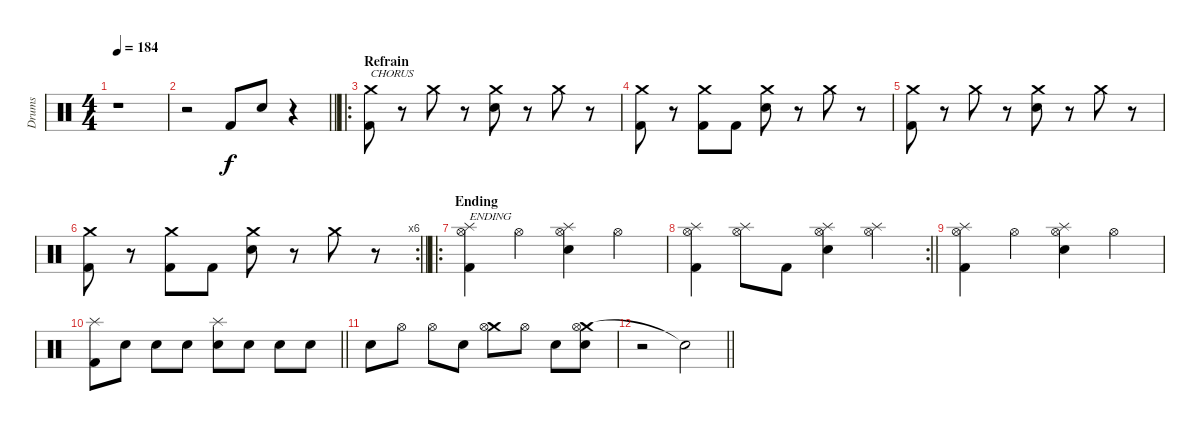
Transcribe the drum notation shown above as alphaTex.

\track ("Drums" "Drums") {instrument percussion}
\staff {score}
\articulation defaults
\ts (4 4)
\tempo 184
\clef neutral
\ks c
r.1{dy f} |
\barLineRight lightlight
r.2 "Kick (hit) 2".8 "Electric Snare (hit)".8 r.4 |
\ro
\section ("" "Refrain")
("Crash medium (hit)" "Kick (hit) 2").8{txt "CHORUS"} r.8 "Crash medium (hit)".8 r.8 ("Crash medium (hit)" "Electric Snare (hit)").8 r.8 "Crash medium (hit)".8 r.8 |
("Crash medium (hit)" "Kick (hit) 2").8 r.8 ("Crash medium (hit)" "Kick (hit) 2").8 "Kick (hit) 2".8 ("Crash medium (hit)" "Electric Snare (hit)").8 r.8 "Crash medium (hit)".8 r.8 |
("Crash medium (hit)" "Kick (hit) 2").8 r.8 "Crash medium (hit)".8 r.8 ("Crash medium (hit)" "Electric Snare (hit)").8 r.8 "Crash medium (hit)".8 r.8 |
\rc 6
\barLineRight lightlight
("Crash medium (hit)" "Kick (hit) 2").8 r.8 ("Crash medium (hit)" "Kick (hit) 2").8 "Kick (hit) 2".8 ("Crash medium (hit)" "Electric Snare (hit)").8 r.8 "Crash medium (hit)".8 r.8 |
\ro
\section ("" "Ending")
("Splash (hit)" "Hi-Hat (open)" "Kick (hit) 2").4{txt "ENDING"} "Hi-Hat (open)".4 ("Splash (hit)" "Hi-Hat (open)" "Electric Snare (hit)").4 "Hi-Hat (open)".4 |
\rc 2
\barLineRight lightlight
("Splash (hit)" "Hi-Hat (open)" "Kick (hit) 2").4 ("Splash (hit)" "Hi-Hat (open)").8 "Kick (hit) 2".8 ("Splash (hit)" "Hi-Hat (open)" "Electric Snare (hit)").4 ("Splash (hit)" "Hi-Hat (open)").4 |
("Splash (hit)" "Hi-Hat (open)" "Kick (hit) 2").4 "Hi-Hat (open)".4 ("Splash (hit)" "Hi-Hat (open)" "Electric Snare (hit)").4 "Hi-Hat (open)".4 |
\barLineRight lightlight
("Splash (hit)" "Kick (hit) 2").8 "Electric Snare (hit)".8 "Electric Snare (hit)".8 "Electric Snare (hit)".8 ("Splash (hit)" "Electric Snare (hit)").8 "Electric Snare (hit)".8 "Electric Snare (hit)".8 "Electric Snare (hit)".8 |
"Electric Snare (hit)".8 "Hi-Hat (open)".8 "Hi-Hat (open)".8 "Electric Snare (hit)".8 ("Crash medium (hit)" "Hi-Hat (open)").8 "Hi-Hat (open)".8 "Electric Snare (hit)".8 ("Crash medium (hit)" "Hi-Hat (open)" "Electric Snare (hit)").8 |
\barLineRight lightlight
r.2 "Snare (hit)"{t}.2
